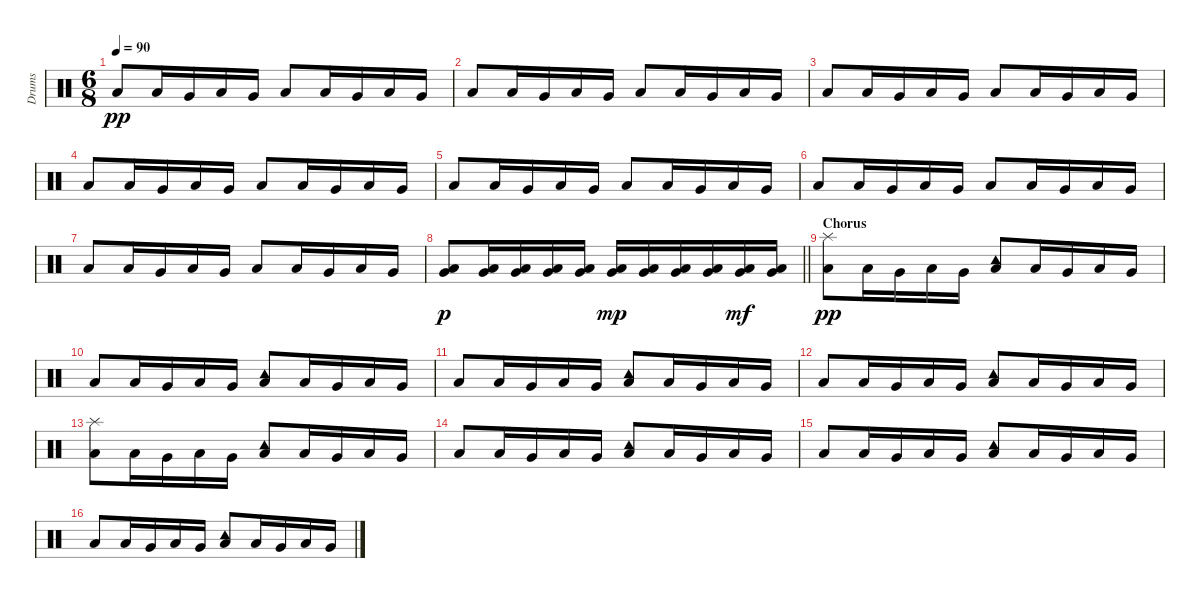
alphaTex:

\track ("Drums" "Drums") {instrument percussion}
\staff {score}
\articulation defaults
\ts (6 8)
\tempo 90
\clef neutral
\ks c "Low Floor Tom (hit)".8{dy pp} "Low Floor Tom (hit)".16 "Very Low Tom (hit)".16 "Low Floor Tom (hit)".16 "Very Low Tom (hit)".16 "Low Floor Tom (hit)".8 "Low Floor Tom (hit)".16 "Very Low Tom (hit)".16 "Low Floor Tom (hit)".16 "Very Low Tom (hit)".16
|
"Low Floor Tom (hit)".8 "Low Floor Tom (hit)".16 "Very Low Tom (hit)".16 "Low Floor Tom (hit)".16 "Very Low Tom (hit)".16 "Low Floor Tom (hit)".8 "Low Floor Tom (hit)".16 "Very Low Tom (hit)".16 "Low Floor Tom (hit)".16 "Very Low Tom (hit)".16 |
"Low Floor Tom (hit)".8 "Low Floor Tom (hit)".16 "Very Low Tom (hit)".16 "Low Floor Tom (hit)".16 "Very Low Tom (hit)".16 "Low Floor Tom (hit)".8 "Low Floor Tom (hit)".16 "Very Low Tom (hit)".16 "Low Floor Tom (hit)".16 "Very Low Tom (hit)".16 |
"Low Floor Tom (hit)".8 "Low Floor Tom (hit)".16 "Very Low Tom (hit)".16 "Low Floor Tom (hit)".16 "Very Low Tom (hit)".16 "Low Floor Tom (hit)".8 "Low Floor Tom (hit)".16 "Very Low Tom (hit)".16 "Low Floor Tom (hit)".16 "Very Low Tom (hit)".16 |
"Low Floor Tom (hit)".8 "Low Floor Tom (hit)".16 "Very Low Tom (hit)".16 "Low Floor Tom (hit)".16 "Very Low Tom (hit)".16 "Low Floor Tom (hit)".8 "Low Floor Tom (hit)".16 "Very Low Tom (hit)".16 "Low Floor Tom (hit)".16 "Very Low Tom (hit)".16 |
"Low Floor Tom (hit)".8 "Low Floor Tom (hit)".16 "Very Low Tom (hit)".16 "Low Floor Tom (hit)".16 "Very Low Tom (hit)".16 "Low Floor Tom (hit)".8 "Low Floor Tom (hit)".16 "Very Low Tom (hit)".16 "Low Floor Tom (hit)".16 "Very Low Tom (hit)".16 |
"Low Floor Tom (hit)".8 "Low Floor Tom (hit)".16 "Very Low Tom (hit)".16 "Low Floor Tom (hit)".16 "Very Low Tom (hit)".16 "Low Floor Tom (hit)".8 "Low Floor Tom (hit)".16 "Very Low Tom (hit)".16 "Low Floor Tom (hit)".16 "Very Low Tom (hit)".16 |
\barLineRight lightlight
("Low Floor Tom (hit)" "Very Low Tom (hit)").8{dy p} ("Low Floor Tom (hit)" "Very Low Tom (hit)").16 ("Low Floor Tom (hit)" "Very Low Tom (hit)").16 ("Low Floor Tom (hit)" "Very Low Tom (hit)").16 ("Low Floor Tom (hit)" "Very Low Tom (hit)").16 ("Low Floor Tom (hit)" "Very Low Tom (hit)").16{dy mp} ("Low Floor Tom (hit)" "Very Low Tom (hit)").16 ("Low Floor Tom (hit)" "Very Low Tom (hit)").16 ("Low Floor Tom (hit)" "Very Low Tom (hit)").16 ("Low Floor Tom (hit)" "Very Low Tom (hit)").16{dy mf} ("Low Floor Tom (hit)" "Very Low Tom (hit)").16 |
\section ("" "Chorus")
("Splash (hit)" "Low Floor Tom (hit)").8{dy pp} "Low Floor Tom (hit)".16 "Very Low Tom (hit)".16 "Low Floor Tom (hit)".16 "Very Low Tom (hit)".16 ("Tambourine (hit)" "Low Floor Tom (hit)").8 "Low Floor Tom (hit)".16 "Very Low Tom (hit)".16 "Low Floor Tom (hit)".16 "Very Low Tom (hit)".16 |
"Low Floor Tom (hit)".8 "Low Floor Tom (hit)".16 "Very Low Tom (hit)".16 "Low Floor Tom (hit)".16 "Very Low Tom (hit)".16 ("Tambourine (hit)" "Low Floor Tom (hit)").8 "Low Floor Tom (hit)".16 "Very Low Tom (hit)".16 "Low Floor Tom (hit)".16 "Very Low Tom (hit)".16 |
"Low Floor Tom (hit)".8 "Low Floor Tom (hit)".16 "Very Low Tom (hit)".16 "Low Floor Tom (hit)".16 "Very Low Tom (hit)".16 ("Tambourine (hit)" "Low Floor Tom (hit)").8 "Low Floor Tom (hit)".16 "Very Low Tom (hit)".16 "Low Floor Tom (hit)".16 "Very Low Tom (hit)".16 |
"Low Floor Tom (hit)".8 "Low Floor Tom (hit)".16 "Very Low Tom (hit)".16 "Low Floor Tom (hit)".16 "Very Low Tom (hit)".16 ("Tambourine (hit)" "Low Floor Tom (hit)").8 "Low Floor Tom (hit)".16 "Very Low Tom (hit)".16 "Low Floor Tom (hit)".16 "Very Low Tom (hit)".16 |
("Splash (hit)" "Low Floor Tom (hit)").8 "Low Floor Tom (hit)".16 "Very Low Tom (hit)".16 "Low Floor Tom (hit)".16 "Very Low Tom (hit)".16 ("Tambourine (hit)" "Low Floor Tom (hit)").8 "Low Floor Tom (hit)".16 "Very Low Tom (hit)".16 "Low Floor Tom (hit)".16 "Very Low Tom (hit)".16 |
"Low Floor Tom (hit)".8 "Low Floor Tom (hit)".16 "Very Low Tom (hit)".16 "Low Floor Tom (hit)".16 "Very Low Tom (hit)".16 ("Tambourine (hit)" "Low Floor Tom (hit)").8 "Low Floor Tom (hit)".16 "Very Low Tom (hit)".16 "Low Floor Tom (hit)".16 "Very Low Tom (hit)".16 |
"Low Floor Tom (hit)".8 "Low Floor Tom (hit)".16 "Very Low Tom (hit)".16 "Low Floor Tom (hit)".16 "Very Low Tom (hit)".16 ("Tambourine (hit)" "Low Floor Tom (hit)").8 "Low Floor Tom (hit)".16 "Very Low Tom (hit)".16 "Low Floor Tom (hit)".16 "Very Low Tom (hit)".16 |
"Low Floor Tom (hit)".8 "Low Floor Tom (hit)".16 "Very Low Tom (hit)".16 "Low Floor Tom (hit)".16 "Very Low Tom (hit)".16 ("Tambourine (hit)" "Low Floor Tom (hit)").8 "Low Floor Tom (hit)".16 "Very Low Tom (hit)".16 "Low Floor Tom (hit)".16 "Very Low Tom (hit)".16
